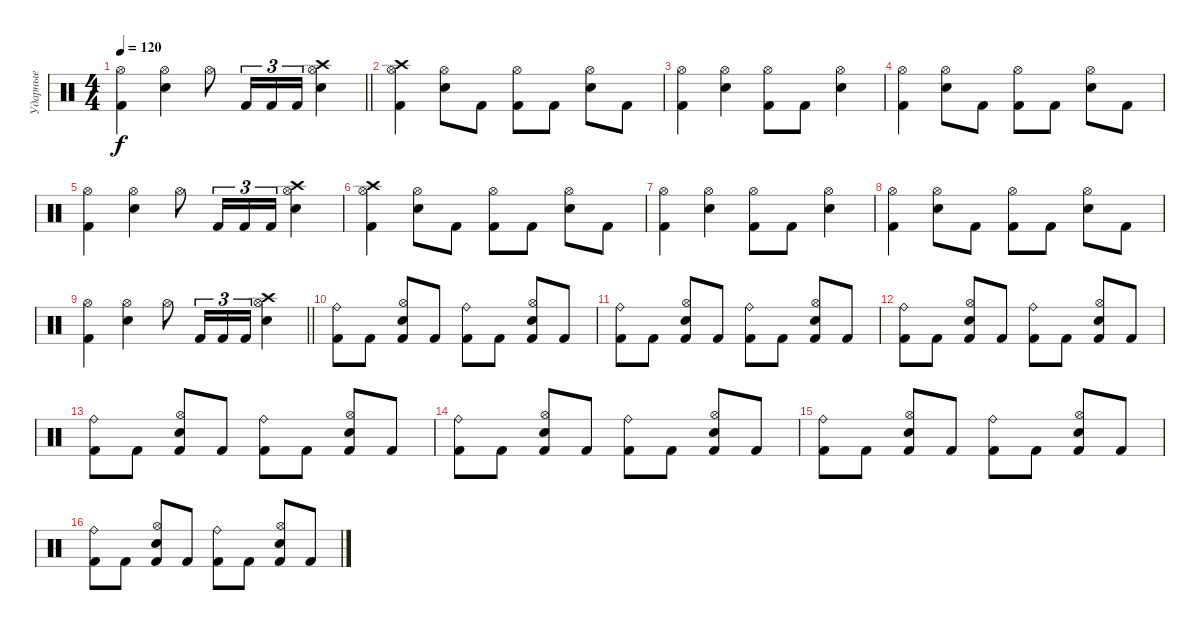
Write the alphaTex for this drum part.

\track ("Ударные" "Ударные") {instrument percussion}
\staff {score}
\articulation defaults
\ts (4 4)
\tempo 120
\clef neutral
\barLineRight lightlight
\ks c
("Kick (hit) 2" "Hi-Hat (open)").4{dy f} ("Snare (hit) 2" "Hi-Hat (open)").4 "Hi-Hat (open)".8 "Kick (hit) 2".16{tu (3 2)} "Kick (hit) 2".16{tu (3 2)} "Kick (hit) 2".16{tu (3 2)} ("Snare (hit) 2" "Hi-Hat (open)" "Crash high (hit)").4 |
("Kick (hit) 2" "Hi-Hat (open)" "Crash high (hit)").4 ("Snare (hit) 2" "Hi-Hat (open)").8 "Kick (hit) 2".8 ("Kick (hit) 2" "Hi-Hat (open)").8 "Kick (hit) 2".8 ("Snare (hit) 2" "Hi-Hat (open)").8 "Kick (hit) 2".8 |
("Kick (hit) 2" "Hi-Hat (open)").4 ("Snare (hit) 2" "Hi-Hat (open)").4 ("Kick (hit) 2" "Hi-Hat (open)").8 "Kick (hit) 2".8 ("Snare (hit) 2" "Hi-Hat (open)").4 |
("Kick (hit) 2" "Hi-Hat (open)").4 ("Snare (hit) 2" "Hi-Hat (open)").8 "Kick (hit) 2".8 ("Kick (hit) 2" "Hi-Hat (open)").8 "Kick (hit) 2".8 ("Snare (hit) 2" "Hi-Hat (open)").8 "Kick (hit) 2".8 |
("Kick (hit) 2" "Hi-Hat (open)").4 ("Snare (hit) 2" "Hi-Hat (open)").4 "Hi-Hat (open)".8 "Kick (hit) 2".16{tu (3 2)} "Kick (hit) 2".16{tu (3 2)} "Kick (hit) 2".16{tu (3 2)} ("Snare (hit) 2" "Hi-Hat (open)" "Crash high (hit)").4 |
("Kick (hit) 2" "Hi-Hat (open)" "Crash high (hit)").4 ("Snare (hit) 2" "Hi-Hat (open)").8 "Kick (hit) 2".8 ("Kick (hit) 2" "Hi-Hat (open)").8 "Kick (hit) 2".8 ("Snare (hit) 2" "Hi-Hat (open)").8 "Kick (hit) 2".8 |
("Kick (hit) 2" "Hi-Hat (open)").4 ("Snare (hit) 2" "Hi-Hat (open)").4 ("Kick (hit) 2" "Hi-Hat (open)").8 "Kick (hit) 2".8 ("Snare (hit) 2" "Hi-Hat (open)").4 |
("Kick (hit) 2" "Hi-Hat (open)").4 ("Snare (hit) 2" "Hi-Hat (open)").8 "Kick (hit) 2".8 ("Kick (hit) 2" "Hi-Hat (open)").8 "Kick (hit) 2".8 ("Snare (hit) 2" "Hi-Hat (open)").8 "Kick (hit) 2".8 |
\barLineRight lightlight
("Kick (hit) 2" "Hi-Hat (open)").4 ("Snare (hit) 2" "Hi-Hat (open)").4 "Hi-Hat (open)".8 "Kick (hit) 2".16{tu (3 2)} "Kick (hit) 2".16{tu (3 2)} "Kick (hit) 2".16{tu (3 2)} ("Snare (hit) 2" "Hi-Hat (open)" "Crash high (hit)").4 |
("Ride (bell)" "Kick (hit) 2").8 "Kick (hit) 2".8 ("Snare (hit) 2" "Hi-Hat (open)" "Kick (hit) 2").8 "Kick (hit) 2".8 ("Ride (bell)" "Kick (hit) 2").8 "Kick (hit) 2".8 ("Snare (hit) 2" "Hi-Hat (open)" "Kick (hit) 2").8 "Kick (hit) 2".8 |
("Ride (bell)" "Kick (hit) 2").8 "Kick (hit) 2".8 ("Snare (hit) 2" "Hi-Hat (open)" "Kick (hit) 2").8 "Kick (hit) 2".8 ("Ride (bell)" "Kick (hit) 2").8 "Kick (hit) 2".8 ("Snare (hit) 2" "Hi-Hat (open)" "Kick (hit) 2").8 "Kick (hit) 2".8 |
("Ride (bell)" "Kick (hit) 2").8 "Kick (hit) 2".8 ("Snare (hit) 2" "Hi-Hat (open)" "Kick (hit) 2").8 "Kick (hit) 2".8 ("Ride (bell)" "Kick (hit) 2").8 "Kick (hit) 2".8 ("Snare (hit) 2" "Hi-Hat (open)" "Kick (hit) 2").8 "Kick (hit) 2".8 |
("Ride (bell)" "Kick (hit) 2").8 "Kick (hit) 2".8 ("Snare (hit) 2" "Hi-Hat (open)" "Kick (hit) 2").8 "Kick (hit) 2".8 ("Ride (bell)" "Kick (hit) 2").8 "Kick (hit) 2".8 ("Snare (hit) 2" "Hi-Hat (open)" "Kick (hit) 2").8 "Kick (hit) 2".8 |
("Ride (bell)" "Kick (hit) 2").8 "Kick (hit) 2".8 ("Snare (hit) 2" "Hi-Hat (open)" "Kick (hit) 2").8 "Kick (hit) 2".8 ("Ride (bell)" "Kick (hit) 2").8 "Kick (hit) 2".8 ("Snare (hit) 2" "Hi-Hat (open)" "Kick (hit) 2").8 "Kick (hit) 2".8 |
("Ride (bell)" "Kick (hit) 2").8 "Kick (hit) 2".8 ("Snare (hit) 2" "Hi-Hat (open)" "Kick (hit) 2").8 "Kick (hit) 2".8 ("Ride (bell)" "Kick (hit) 2").8 "Kick (hit) 2".8 ("Snare (hit) 2" "Hi-Hat (open)" "Kick (hit) 2").8 "Kick (hit) 2".8 |
("Ride (bell)" "Kick (hit) 2").8 "Kick (hit) 2".8 ("Snare (hit) 2" "Hi-Hat (open)" "Kick (hit) 2").8 "Kick (hit) 2".8 ("Ride (bell)" "Kick (hit) 2").8 "Kick (hit) 2".8 ("Snare (hit) 2" "Hi-Hat (open)" "Kick (hit) 2").8 "Kick (hit) 2".8
